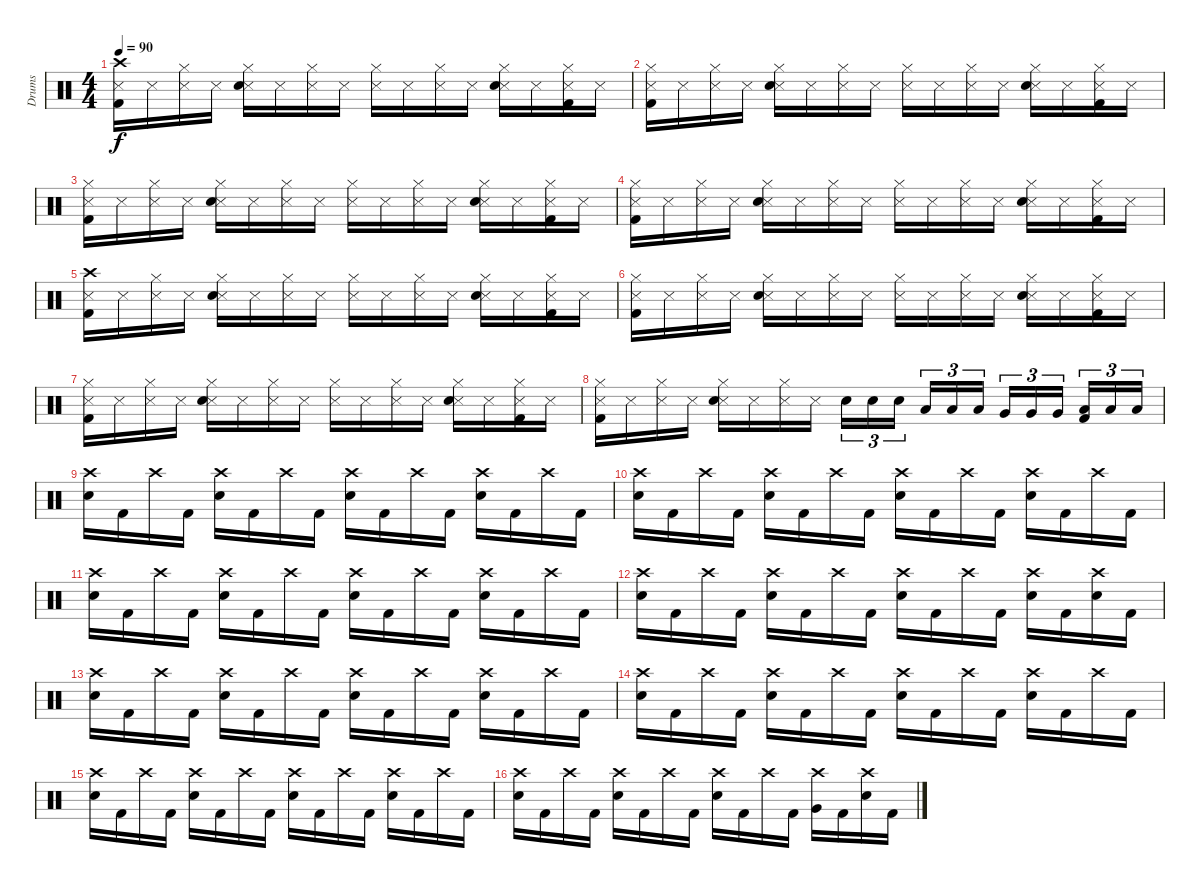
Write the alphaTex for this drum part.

\track ("Drums" "Drums") {instrument percussion}
\staff {score}
\articulation defaults
\ts (4 4)
\tempo 90
\clef neutral
\ks c
("Crash high (hit)" "Snare (side stick) 3" "Kick (hit) 2").16{dy f} "Snare (side stick) 3".16 ("Hi-Hat (closed)" "Snare (side stick) 3").16 "Snare (side stick) 3".16 ("Hi-Hat (closed)" "Snare (side stick) 3" "Electric Snare (hit)").16 "Snare (side stick) 3".16 ("Hi-Hat (closed)" "Snare (side stick) 3").16 "Snare (side stick) 3".16 ("Hi-Hat (closed)" "Snare (side stick) 3").16 "Snare (side stick) 3".16 ("Hi-Hat (closed)" "Snare (side stick) 3").16 "Snare (side stick) 3".16 ("Hi-Hat (closed)" "Snare (side stick) 3" "Electric Snare (hit)").16 "Snare (side stick) 3".16 ("Hi-Hat (closed)" "Snare (side stick) 3" "Kick (hit) 2").16 "Snare (side stick) 3".16 |
("Hi-Hat (closed)" "Snare (side stick) 3" "Kick (hit) 2").16 "Snare (side stick) 3".16 ("Hi-Hat (closed)" "Snare (side stick) 3").16 "Snare (side stick) 3".16 ("Hi-Hat (closed)" "Snare (side stick) 3" "Electric Snare (hit)").16 "Snare (side stick) 3".16 ("Hi-Hat (closed)" "Snare (side stick) 3").16 "Snare (side stick) 3".16 ("Hi-Hat (closed)" "Snare (side stick) 3").16 "Snare (side stick) 3".16 ("Hi-Hat (closed)" "Snare (side stick) 3").16 "Snare (side stick) 3".16 ("Hi-Hat (closed)" "Snare (side stick) 3" "Electric Snare (hit)").16 "Snare (side stick) 3".16 ("Hi-Hat (closed)" "Snare (side stick) 3" "Kick (hit) 2").16 "Snare (side stick) 3".16 |
("Hi-Hat (closed)" "Snare (side stick) 3" "Kick (hit) 2").16 "Snare (side stick) 3".16 ("Hi-Hat (closed)" "Snare (side stick) 3").16 "Snare (side stick) 3".16 ("Hi-Hat (closed)" "Snare (side stick) 3" "Electric Snare (hit)").16 "Snare (side stick) 3".16 ("Hi-Hat (closed)" "Snare (side stick) 3").16 "Snare (side stick) 3".16 ("Hi-Hat (closed)" "Snare (side stick) 3").16 "Snare (side stick) 3".16 ("Hi-Hat (closed)" "Snare (side stick) 3").16 "Snare (side stick) 3".16 ("Hi-Hat (closed)" "Snare (side stick) 3" "Electric Snare (hit)").16 "Snare (side stick) 3".16 ("Hi-Hat (closed)" "Snare (side stick) 3" "Kick (hit) 2").16 "Snare (side stick) 3".16 |
("Hi-Hat (closed)" "Snare (side stick) 3" "Kick (hit) 2").16 "Snare (side stick) 3".16 ("Hi-Hat (closed)" "Snare (side stick) 3").16 "Snare (side stick) 3".16 ("Hi-Hat (closed)" "Snare (side stick) 3" "Electric Snare (hit)").16 "Snare (side stick) 3".16 ("Hi-Hat (closed)" "Snare (side stick) 3").16 "Snare (side stick) 3".16 ("Hi-Hat (closed)" "Snare (side stick) 3").16 "Snare (side stick) 3".16 ("Hi-Hat (closed)" "Snare (side stick) 3").16 "Snare (side stick) 3".16 ("Hi-Hat (closed)" "Snare (side stick) 3" "Electric Snare (hit)").16 "Snare (side stick) 3".16 ("Hi-Hat (closed)" "Snare (side stick) 3" "Kick (hit) 2").16 "Snare (side stick) 3".16 |
("Crash high (hit)" "Snare (side stick) 3" "Kick (hit) 2").16 "Snare (side stick) 3".16 ("Hi-Hat (closed)" "Snare (side stick) 3").16 "Snare (side stick) 3".16 ("Hi-Hat (closed)" "Snare (side stick) 3" "Electric Snare (hit)").16 "Snare (side stick) 3".16 ("Hi-Hat (closed)" "Snare (side stick) 3").16 "Snare (side stick) 3".16 ("Hi-Hat (closed)" "Snare (side stick) 3").16 "Snare (side stick) 3".16 ("Hi-Hat (closed)" "Snare (side stick) 3").16 "Snare (side stick) 3".16 ("Hi-Hat (closed)" "Snare (side stick) 3" "Electric Snare (hit)").16 "Snare (side stick) 3".16 ("Hi-Hat (closed)" "Snare (side stick) 3" "Kick (hit) 2").16 "Snare (side stick) 3".16 |
("Hi-Hat (closed)" "Snare (side stick) 3" "Kick (hit) 2").16 "Snare (side stick) 3".16 ("Hi-Hat (closed)" "Snare (side stick) 3").16 "Snare (side stick) 3".16 ("Hi-Hat (closed)" "Snare (side stick) 3" "Electric Snare (hit)").16 "Snare (side stick) 3".16 ("Hi-Hat (closed)" "Snare (side stick) 3").16 "Snare (side stick) 3".16 ("Hi-Hat (closed)" "Snare (side stick) 3").16 "Snare (side stick) 3".16 ("Hi-Hat (closed)" "Snare (side stick) 3").16 "Snare (side stick) 3".16 ("Hi-Hat (closed)" "Snare (side stick) 3" "Electric Snare (hit)").16 "Snare (side stick) 3".16 ("Hi-Hat (closed)" "Snare (side stick) 3" "Kick (hit) 2").16 "Snare (side stick) 3".16 |
("Hi-Hat (closed)" "Snare (side stick) 3" "Kick (hit) 2").16 "Snare (side stick) 3".16 ("Hi-Hat (closed)" "Snare (side stick) 3").16 "Snare (side stick) 3".16 ("Hi-Hat (closed)" "Snare (side stick) 3" "Electric Snare (hit)").16 "Snare (side stick) 3".16 ("Hi-Hat (closed)" "Snare (side stick) 3").16 "Snare (side stick) 3".16 ("Hi-Hat (closed)" "Snare (side stick) 3").16 "Snare (side stick) 3".16 ("Hi-Hat (closed)" "Snare (side stick) 3").16 "Snare (side stick) 3".16 ("Hi-Hat (closed)" "Snare (side stick) 3" "Electric Snare (hit)").16 "Snare (side stick) 3".16 ("Hi-Hat (closed)" "Snare (side stick) 3" "Kick (hit) 2").16 "Snare (side stick) 3".16 |
("Hi-Hat (closed)" "Snare (side stick) 3" "Kick (hit) 2").16 "Snare (side stick) 3".16 ("Hi-Hat (closed)" "Snare (side stick) 3").16 "Snare (side stick) 3".16 ("Hi-Hat (closed)" "Snare (side stick) 3" "Electric Snare (hit)").16 "Snare (side stick) 3".16 ("Hi-Hat (closed)" "Snare (side stick) 3").16 "Snare (side stick) 3".16 "Electric Snare (hit)".16{tu (3 2)} "Electric Snare (hit)".16{tu (3 2)} "Electric Snare (hit)".16{tu (3 2)} "Low Tom (hit)".16{tu (3 2)} "Low Tom (hit)".16{tu (3 2)} "Low Tom (hit)".16{tu (3 2)} "Very Low Tom (hit)".16{tu (3 2)} "Very Low Tom (hit)".16{tu (3 2)} "Very Low Tom (hit)".16{tu (3 2)} ("Low Floor Tom (hit)" "Kick (hit) 2").16{tu (3 2)} "Low Floor Tom (hit)".16{tu (3 2)} "Low Floor Tom (hit)".16{tu (3 2)} |
("Crash high (hit)" "Electric Snare (hit)").16 "Kick (hit) 2".16 "Crash high (hit)".16 "Kick (hit) 2".16 ("Crash high (hit)" "Electric Snare (hit)").16 "Kick (hit) 2".16 "Crash high (hit)".16 "Kick (hit) 2".16 ("Crash high (hit)" "Electric Snare (hit)").16 "Kick (hit) 2".16 "Crash high (hit)".16 "Kick (hit) 2".16 ("Crash high (hit)" "Electric Snare (hit)").16 "Kick (hit) 2".16 "Crash high (hit)".16 "Kick (hit) 2".16 |
("Crash high (hit)" "Electric Snare (hit)").16 "Kick (hit) 2".16 "Crash high (hit)".16 "Kick (hit) 2".16 ("Crash high (hit)" "Electric Snare (hit)").16 "Kick (hit) 2".16 "Crash high (hit)".16 "Kick (hit) 2".16 ("Crash high (hit)" "Electric Snare (hit)").16 "Kick (hit) 2".16 "Crash high (hit)".16 "Kick (hit) 2".16 ("Crash high (hit)" "Electric Snare (hit)").16 "Kick (hit) 2".16 "Crash high (hit)".16 "Kick (hit) 2".16 |
("Crash high (hit)" "Electric Snare (hit)").16 "Kick (hit) 2".16 "Crash high (hit)".16 "Kick (hit) 2".16 ("Crash high (hit)" "Electric Snare (hit)").16 "Kick (hit) 2".16 "Crash high (hit)".16 "Kick (hit) 2".16 ("Crash high (hit)" "Electric Snare (hit)").16 "Kick (hit) 2".16 "Crash high (hit)".16 "Kick (hit) 2".16 ("Crash high (hit)" "Electric Snare (hit)").16 "Kick (hit) 2".16 "Crash high (hit)".16 "Kick (hit) 2".16 |
("Crash high (hit)" "Electric Snare (hit)").16 "Kick (hit) 2".16 "Crash high (hit)".16 "Kick (hit) 2".16 ("Crash high (hit)" "Electric Snare (hit)").16 "Kick (hit) 2".16 "Crash high (hit)".16 "Kick (hit) 2".16 ("Crash high (hit)" "Electric Snare (hit)").16 "Kick (hit) 2".16 "Crash high (hit)".16 "Kick (hit) 2".16 ("Crash high (hit)" "Electric Snare (hit)").16 "Kick (hit) 2".16 ("Crash high (hit)" "Electric Snare (hit)").16 "Kick (hit) 2".16 |
("Crash high (hit)" "Electric Snare (hit)").16 "Kick (hit) 2".16 "Crash high (hit)".16 "Kick (hit) 2".16 ("Crash high (hit)" "Electric Snare (hit)").16 "Kick (hit) 2".16 "Crash high (hit)".16 "Kick (hit) 2".16 ("Crash high (hit)" "Electric Snare (hit)").16 "Kick (hit) 2".16 "Crash high (hit)".16 "Kick (hit) 2".16 ("Crash high (hit)" "Electric Snare (hit)").16 "Kick (hit) 2".16 "Crash high (hit)".16 "Kick (hit) 2".16 |
("Crash high (hit)" "Electric Snare (hit)").16 "Kick (hit) 2".16 "Crash high (hit)".16 "Kick (hit) 2".16 ("Crash high (hit)" "Electric Snare (hit)").16 "Kick (hit) 2".16 "Crash high (hit)".16 "Kick (hit) 2".16 ("Crash high (hit)" "Electric Snare (hit)").16 "Kick (hit) 2".16 "Crash high (hit)".16 "Kick (hit) 2".16 ("Crash high (hit)" "Electric Snare (hit)").16 "Kick (hit) 2".16 "Crash high (hit)".16 "Kick (hit) 2".16 |
("Crash high (hit)" "Electric Snare (hit)").16 "Kick (hit) 2".16 "Crash high (hit)".16 "Kick (hit) 2".16 ("Crash high (hit)" "Electric Snare (hit)").16 "Kick (hit) 2".16 "Crash high (hit)".16 "Kick (hit) 2".16 ("Crash high (hit)" "Electric Snare (hit)").16 "Kick (hit) 2".16 "Crash high (hit)".16 "Kick (hit) 2".16 ("Crash high (hit)" "Electric Snare (hit)").16 "Kick (hit) 2".16 "Crash high (hit)".16 "Kick (hit) 2".16 |
("Crash high (hit)" "Electric Snare (hit)").16 "Kick (hit) 2".16 "Crash high (hit)".16 "Kick (hit) 2".16 ("Crash high (hit)" "Electric Snare (hit)").16 "Kick (hit) 2".16 "Crash high (hit)".16 "Kick (hit) 2".16 ("Crash high (hit)" "Electric Snare (hit)").16 "Kick (hit) 2".16 "Crash high (hit)".16 "Kick (hit) 2".16 ("Crash high (hit)" "Very Low Tom (hit)").16 "Kick (hit) 2".16 ("Crash high (hit)" "Electric Snare (hit)").16 "Kick (hit) 2".16
